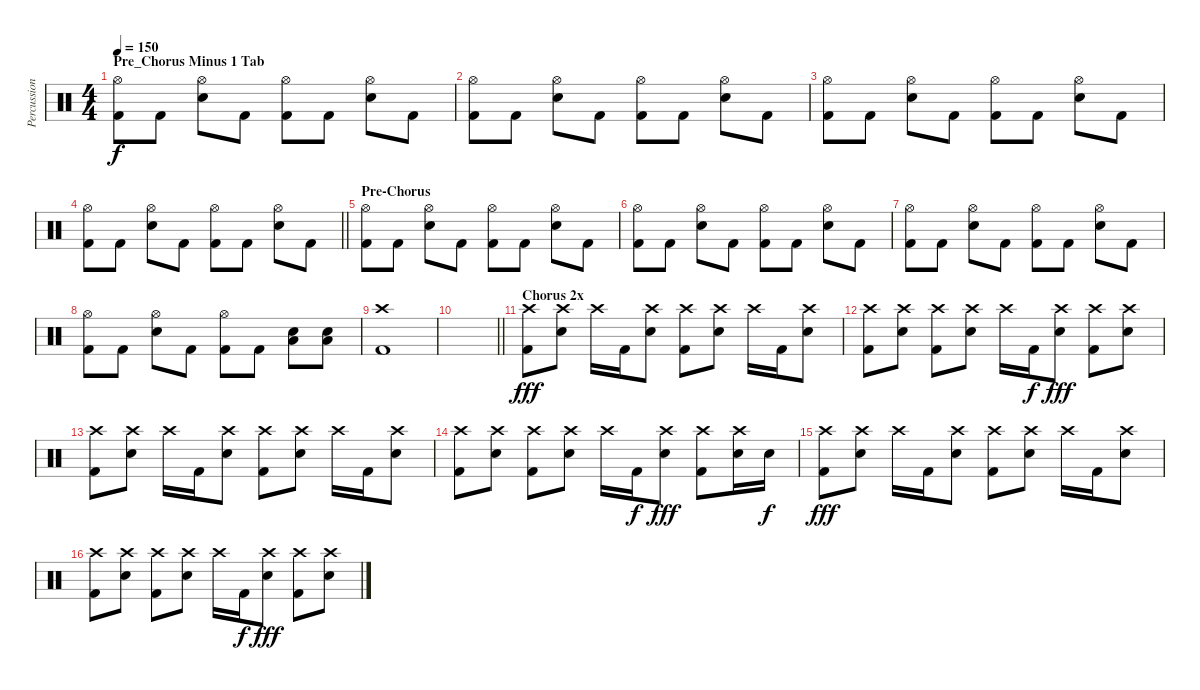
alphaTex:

\track ("Percussion" "Percussion") {instrument percussion}
\staff {score}
\articulation defaults
\ts (4 4)
\section ("" "Pre_Chorus Minus 1 Tab")
\tempo 150
\clef neutral
\ks c
("Hi-Hat (open)" "Kick (hit) 2").8{dy f} "Kick (hit) 2".8 ("Hi-Hat (open)" "Snare (hit) 2").8 "Kick (hit) 2".8 ("Hi-Hat (open)" "Kick (hit) 2").8 "Kick (hit) 2".8 ("Hi-Hat (open)" "Snare (hit) 2").8 "Kick (hit) 2".8 |
("Hi-Hat (open)" "Kick (hit) 2").8 "Kick (hit) 2".8 ("Hi-Hat (open)" "Snare (hit) 2").8 "Kick (hit) 2".8 ("Hi-Hat (open)" "Kick (hit) 2").8 "Kick (hit) 2".8 ("Hi-Hat (open)" "Snare (hit) 2").8 "Kick (hit) 2".8 |
("Hi-Hat (open)" "Kick (hit) 2").8 "Kick (hit) 2".8 ("Hi-Hat (open)" "Snare (hit) 2").8 "Kick (hit) 2".8 ("Hi-Hat (open)" "Kick (hit) 2").8 "Kick (hit) 2".8 ("Hi-Hat (open)" "Snare (hit) 2").8 "Kick (hit) 2".8 |
\barLineRight lightlight
("Hi-Hat (open)" "Kick (hit) 2").8 "Kick (hit) 2".8 ("Hi-Hat (open)" "Snare (hit) 2").8 "Kick (hit) 2".8 ("Hi-Hat (open)" "Kick (hit) 2").8 "Kick (hit) 2".8 ("Hi-Hat (open)" "Snare (hit) 2").8 "Kick (hit) 2".8 |
\section ("" "Pre-Chorus")
("Hi-Hat (open)" "Kick (hit) 2").8 "Kick (hit) 2".8 ("Hi-Hat (open)" "Snare (hit) 2").8 "Kick (hit) 2".8 ("Hi-Hat (open)" "Kick (hit) 2").8 "Kick (hit) 2".8 ("Hi-Hat (open)" "Snare (hit) 2").8 "Kick (hit) 2".8 |
("Hi-Hat (open)" "Kick (hit) 2").8 "Kick (hit) 2".8 ("Hi-Hat (open)" "Snare (hit) 2").8 "Kick (hit) 2".8 ("Hi-Hat (open)" "Kick (hit) 2").8 "Kick (hit) 2".8 ("Hi-Hat (open)" "Snare (hit) 2").8 "Kick (hit) 2".8 |
("Hi-Hat (open)" "Kick (hit) 2").8 "Kick (hit) 2".8 ("Hi-Hat (open)" "Snare (hit) 2").8 "Kick (hit) 2".8 ("Hi-Hat (open)" "Kick (hit) 2").8 "Kick (hit) 2".8 ("Hi-Hat (open)" "Snare (hit) 2").8 "Kick (hit) 2".8 |
("Hi-Hat (open)" "Kick (hit) 2").8 "Kick (hit) 2".8 ("Hi-Hat (open)" "Snare (hit) 2").8 "Kick (hit) 2".8 ("Hi-Hat (open)" "Kick (hit) 2").8 "Kick (hit) 2".8 ("Low Floor Tom (hit)" "Snare (hit) 2").8 ("Low Floor Tom (hit)" "Snare (hit) 2").8 |
("Crash high (hit)" "Kick (hit) 2").1 |
\barLineRight lightlight
|
\section ("" "Chorus 2x")
("Crash high (hit)" "Kick (hit) 2").8{dy fff} ("Crash high (hit)" "Snare (hit) 2").8 "Crash high (hit)".16 "Kick (hit) 2".16 ("Crash high (hit)" "Snare (hit) 2").8 ("Crash high (hit)" "Kick (hit) 2").8 ("Crash high (hit)" "Snare (hit) 2").8 "Crash high (hit)".16 "Kick (hit) 2".16 ("Crash high (hit)" "Snare (hit) 2").8 |
("Crash high (hit)" "Kick (hit) 2").8 ("Crash high (hit)" "Snare (hit) 2").8 ("Crash high (hit)" "Kick (hit) 2").8 ("Crash high (hit)" "Snare (hit) 2").8 "Crash high (hit)".16 "Kick (hit) 2".16{dy f} ("Crash high (hit)" "Snare (hit) 2").8{dy fff} ("Crash high (hit)" "Kick (hit) 2").8 ("Crash high (hit)" "Snare (hit) 2").8 |
("Crash high (hit)" "Kick (hit) 2").8 ("Crash high (hit)" "Snare (hit) 2").8 "Crash high (hit)".16 "Kick (hit) 2".16 ("Crash high (hit)" "Snare (hit) 2").8 ("Crash high (hit)" "Kick (hit) 2").8 ("Crash high (hit)" "Snare (hit) 2").8 "Crash high (hit)".16 "Kick (hit) 2".16 ("Crash high (hit)" "Snare (hit) 2").8 |
("Crash high (hit)" "Kick (hit) 2").8 ("Crash high (hit)" "Snare (hit) 2").8 ("Crash high (hit)" "Kick (hit) 2").8 ("Crash high (hit)" "Snare (hit) 2").8 "Crash high (hit)".16 "Kick (hit) 2".16{dy f} ("Crash high (hit)" "Snare (hit) 2").8{dy fff} ("Crash high (hit)" "Kick (hit) 2").8 ("Crash high (hit)" "Snare (hit) 2").16 "Snare (hit) 2".16{dy f} |
("Crash high (hit)" "Kick (hit) 2").8{dy fff} ("Crash high (hit)" "Snare (hit) 2").8 "Crash high (hit)".16 "Kick (hit) 2".16 ("Crash high (hit)" "Snare (hit) 2").8 ("Crash high (hit)" "Kick (hit) 2").8 ("Crash high (hit)" "Snare (hit) 2").8 "Crash high (hit)".16 "Kick (hit) 2".16 ("Crash high (hit)" "Snare (hit) 2").8 |
("Crash high (hit)" "Kick (hit) 2").8 ("Crash high (hit)" "Snare (hit) 2").8 ("Crash high (hit)" "Kick (hit) 2").8 ("Crash high (hit)" "Snare (hit) 2").8 "Crash high (hit)".16 "Kick (hit) 2".16{dy f} ("Crash high (hit)" "Snare (hit) 2").8{dy fff} ("Crash high (hit)" "Kick (hit) 2").8 ("Crash high (hit)" "Snare (hit) 2").8
